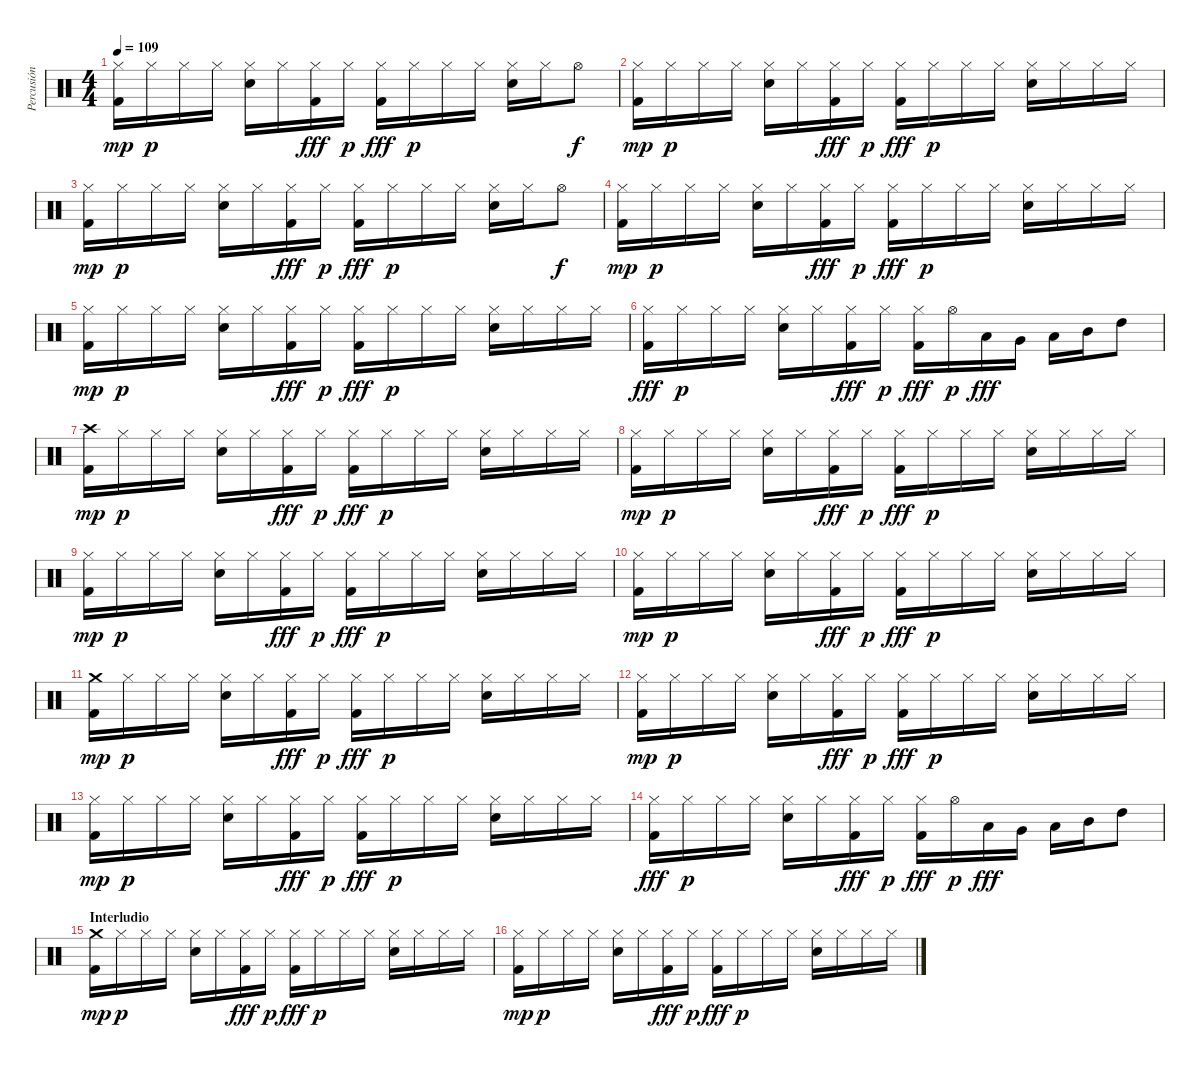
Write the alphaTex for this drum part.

\track ("Percusión" "Percusión") {instrument percussion}
\staff {score}
\articulation defaults
\ts (4 4)
\tempo 109
\clef neutral
\ks c
("Hi-Hat (closed)" "Kick (hit) 2").16{dy mp} "Hi-Hat (closed)".16{dy p} "Hi-Hat (closed)".16 "Hi-Hat (closed)".16 ("Hi-Hat (closed)" "Snare (hit) 2").16 "Hi-Hat (closed)".16 ("Hi-Hat (closed)" "Kick (hit) 2").16{dy fff} "Hi-Hat (closed)".16{dy p} ("Hi-Hat (closed)" "Kick (hit) 2").16{dy fff} "Hi-Hat (closed)".16{dy p} "Hi-Hat (closed)".16 "Hi-Hat (closed)".16 ("Hi-Hat (closed)" "Snare (hit) 2").16 "Hi-Hat (closed)".16 "Hi-Hat (open)".8{dy f} |
("Hi-Hat (closed)" "Kick (hit) 2").16{dy mp} "Hi-Hat (closed)".16{dy p} "Hi-Hat (closed)".16 "Hi-Hat (closed)".16 ("Hi-Hat (closed)" "Snare (hit) 2").16 "Hi-Hat (closed)".16 ("Hi-Hat (closed)" "Kick (hit) 2").16{dy fff} "Hi-Hat (closed)".16{dy p} ("Hi-Hat (closed)" "Kick (hit) 2").16{dy fff} "Hi-Hat (closed)".16{dy p} "Hi-Hat (closed)".16 "Hi-Hat (closed)".16 ("Hi-Hat (closed)" "Snare (hit) 2").16 "Hi-Hat (closed)".16 "Hi-Hat (closed)".16 "Hi-Hat (closed)".16 |
("Hi-Hat (closed)" "Kick (hit) 2").16{dy mp} "Hi-Hat (closed)".16{dy p} "Hi-Hat (closed)".16 "Hi-Hat (closed)".16 ("Hi-Hat (closed)" "Snare (hit) 2").16 "Hi-Hat (closed)".16 ("Hi-Hat (closed)" "Kick (hit) 2").16{dy fff} "Hi-Hat (closed)".16{dy p} ("Hi-Hat (closed)" "Kick (hit) 2").16{dy fff} "Hi-Hat (closed)".16{dy p} "Hi-Hat (closed)".16 "Hi-Hat (closed)".16 ("Hi-Hat (closed)" "Snare (hit) 2").16 "Hi-Hat (closed)".16 "Hi-Hat (open)".8{dy f} |
("Hi-Hat (closed)" "Kick (hit) 2").16{dy mp} "Hi-Hat (closed)".16{dy p} "Hi-Hat (closed)".16 "Hi-Hat (closed)".16 ("Hi-Hat (closed)" "Snare (hit) 2").16 "Hi-Hat (closed)".16 ("Hi-Hat (closed)" "Kick (hit) 2").16{dy fff} "Hi-Hat (closed)".16{dy p} ("Hi-Hat (closed)" "Kick (hit) 2").16{dy fff} "Hi-Hat (closed)".16{dy p} "Hi-Hat (closed)".16 "Hi-Hat (closed)".16 ("Hi-Hat (closed)" "Snare (hit) 2").16 "Hi-Hat (closed)".16 "Hi-Hat (closed)".16 "Hi-Hat (closed)".16 |
("Hi-Hat (closed)" "Kick (hit) 2").16{dy mp} "Hi-Hat (closed)".16{dy p} "Hi-Hat (closed)".16 "Hi-Hat (closed)".16 ("Hi-Hat (closed)" "Snare (hit) 2").16 "Hi-Hat (closed)".16 ("Hi-Hat (closed)" "Kick (hit) 2").16{dy fff} "Hi-Hat (closed)".16{dy p} ("Hi-Hat (closed)" "Kick (hit) 2").16{dy fff} "Hi-Hat (closed)".16{dy p} "Hi-Hat (closed)".16 "Hi-Hat (closed)".16 ("Hi-Hat (closed)" "Snare (hit) 2").16 "Hi-Hat (closed)".16 "Hi-Hat (closed)".16 "Hi-Hat (closed)".16 |
("Hi-Hat (closed)" "Kick (hit) 2").16{dy fff} "Hi-Hat (closed)".16{dy p} "Hi-Hat (closed)".16 "Hi-Hat (closed)".16 ("Hi-Hat (closed)" "Snare (hit) 2").16 "Hi-Hat (closed)".16 ("Hi-Hat (closed)" "Kick (hit) 2").16{dy fff} "Hi-Hat (closed)".16{dy p} ("Hi-Hat (closed)" "Kick (hit) 2").16{dy fff} "Hi-Hat (open)".16{dy p} "Low Floor Tom (hit)".16{dy fff} "Very Low Tom (hit)".16 "Low Tom (hit)".16 "Mid Tom (hit)".16 "High Tom (hit)".8 |
("Crash high (hit)" "Kick (hit) 2").16{dy mp} "Hi-Hat (closed)".16{dy p} "Hi-Hat (closed)".16 "Hi-Hat (closed)".16 ("Hi-Hat (closed)" "Snare (hit) 2").16 "Hi-Hat (closed)".16 ("Hi-Hat (closed)" "Kick (hit) 2").16{dy fff} "Hi-Hat (closed)".16{dy p} ("Hi-Hat (closed)" "Kick (hit) 2").16{dy fff} "Hi-Hat (closed)".16{dy p} "Hi-Hat (closed)".16 "Hi-Hat (closed)".16 ("Hi-Hat (closed)" "Snare (hit) 2").16 "Hi-Hat (closed)".16 "Hi-Hat (closed)".16 "Hi-Hat (closed)".16 |
("Hi-Hat (closed)" "Kick (hit) 2").16{dy mp} "Hi-Hat (closed)".16{dy p} "Hi-Hat (closed)".16 "Hi-Hat (closed)".16 ("Hi-Hat (closed)" "Snare (hit) 2").16 "Hi-Hat (closed)".16 ("Hi-Hat (closed)" "Kick (hit) 2").16{dy fff} "Hi-Hat (closed)".16{dy p} ("Hi-Hat (closed)" "Kick (hit) 2").16{dy fff} "Hi-Hat (closed)".16{dy p} "Hi-Hat (closed)".16 "Hi-Hat (closed)".16 ("Hi-Hat (closed)" "Snare (hit) 2").16 "Hi-Hat (closed)".16 "Hi-Hat (closed)".16 "Hi-Hat (closed)".16 |
("Hi-Hat (closed)" "Kick (hit) 2").16{dy mp} "Hi-Hat (closed)".16{dy p} "Hi-Hat (closed)".16 "Hi-Hat (closed)".16 ("Hi-Hat (closed)" "Snare (hit) 2").16 "Hi-Hat (closed)".16 ("Hi-Hat (closed)" "Kick (hit) 2").16{dy fff} "Hi-Hat (closed)".16{dy p} ("Hi-Hat (closed)" "Kick (hit) 2").16{dy fff} "Hi-Hat (closed)".16{dy p} "Hi-Hat (closed)".16 "Hi-Hat (closed)".16 ("Hi-Hat (closed)" "Snare (hit) 2").16 "Hi-Hat (closed)".16 "Hi-Hat (closed)".16 "Hi-Hat (closed)".16 |
("Hi-Hat (closed)" "Kick (hit) 2").16{dy mp} "Hi-Hat (closed)".16{dy p} "Hi-Hat (closed)".16 "Hi-Hat (closed)".16 ("Hi-Hat (closed)" "Snare (hit) 2").16 "Hi-Hat (closed)".16 ("Hi-Hat (closed)" "Kick (hit) 2").16{dy fff} "Hi-Hat (closed)".16{dy p} ("Hi-Hat (closed)" "Kick (hit) 2").16{dy fff} "Hi-Hat (closed)".16{dy p} "Hi-Hat (closed)".16 "Hi-Hat (closed)".16 ("Hi-Hat (closed)" "Snare (hit) 2").16 "Hi-Hat (closed)".16 "Hi-Hat (closed)".16 "Hi-Hat (closed)".16 |
("Crash medium (hit)" "Kick (hit) 2").16{dy mp} "Hi-Hat (closed)".16{dy p} "Hi-Hat (closed)".16 "Hi-Hat (closed)".16 ("Hi-Hat (closed)" "Snare (hit) 2").16 "Hi-Hat (closed)".16 ("Hi-Hat (closed)" "Kick (hit) 2").16{dy fff} "Hi-Hat (closed)".16{dy p} ("Hi-Hat (closed)" "Kick (hit) 2").16{dy fff} "Hi-Hat (closed)".16{dy p} "Hi-Hat (closed)".16 "Hi-Hat (closed)".16 ("Hi-Hat (closed)" "Snare (hit) 2").16 "Hi-Hat (closed)".16 "Hi-Hat (closed)".16 "Hi-Hat (closed)".16 |
("Hi-Hat (closed)" "Kick (hit) 2").16{dy mp} "Hi-Hat (closed)".16{dy p} "Hi-Hat (closed)".16 "Hi-Hat (closed)".16 ("Hi-Hat (closed)" "Snare (hit) 2").16 "Hi-Hat (closed)".16 ("Hi-Hat (closed)" "Kick (hit) 2").16{dy fff} "Hi-Hat (closed)".16{dy p} ("Hi-Hat (closed)" "Kick (hit) 2").16{dy fff} "Hi-Hat (closed)".16{dy p} "Hi-Hat (closed)".16 "Hi-Hat (closed)".16 ("Hi-Hat (closed)" "Snare (hit) 2").16 "Hi-Hat (closed)".16 "Hi-Hat (closed)".16 "Hi-Hat (closed)".16 |
("Hi-Hat (closed)" "Kick (hit) 2").16{dy mp} "Hi-Hat (closed)".16{dy p} "Hi-Hat (closed)".16 "Hi-Hat (closed)".16 ("Hi-Hat (closed)" "Snare (hit) 2").16 "Hi-Hat (closed)".16 ("Hi-Hat (closed)" "Kick (hit) 2").16{dy fff} "Hi-Hat (closed)".16{dy p} ("Hi-Hat (closed)" "Kick (hit) 2").16{dy fff} "Hi-Hat (closed)".16{dy p} "Hi-Hat (closed)".16 "Hi-Hat (closed)".16 ("Hi-Hat (closed)" "Snare (hit) 2").16 "Hi-Hat (closed)".16 "Hi-Hat (closed)".16 "Hi-Hat (closed)".16 |
("Hi-Hat (closed)" "Kick (hit) 2").16{dy fff} "Hi-Hat (closed)".16{dy p} "Hi-Hat (closed)".16 "Hi-Hat (closed)".16 ("Hi-Hat (closed)" "Snare (hit) 2").16 "Hi-Hat (closed)".16 ("Hi-Hat (closed)" "Kick (hit) 2").16{dy fff} "Hi-Hat (closed)".16{dy p} ("Hi-Hat (closed)" "Kick (hit) 2").16{dy fff} "Hi-Hat (open)".16{dy p} "Low Floor Tom (hit)".16{dy fff} "Very Low Tom (hit)".16 "Low Tom (hit)".16 "Mid Tom (hit)".16 "High Tom (hit)".8 |
\section ("" "Interludio")
("Crash medium (hit)" "Kick (hit) 2").16{dy mp} "Hi-Hat (closed)".16{dy p} "Hi-Hat (closed)".16 "Hi-Hat (closed)".16 ("Hi-Hat (closed)" "Snare (hit) 2").16 "Hi-Hat (closed)".16 ("Hi-Hat (closed)" "Kick (hit) 2").16{dy fff} "Hi-Hat (closed)".16{dy p} ("Hi-Hat (closed)" "Kick (hit) 2").16{dy fff} "Hi-Hat (closed)".16{dy p} "Hi-Hat (closed)".16 "Hi-Hat (closed)".16 ("Hi-Hat (closed)" "Snare (hit) 2").16 "Hi-Hat (closed)".16 "Hi-Hat (closed)".16 "Hi-Hat (closed)".16 |
("Hi-Hat (closed)" "Kick (hit) 2").16{dy mp} "Hi-Hat (closed)".16{dy p} "Hi-Hat (closed)".16 "Hi-Hat (closed)".16 ("Hi-Hat (closed)" "Snare (hit) 2").16 "Hi-Hat (closed)".16 ("Hi-Hat (closed)" "Kick (hit) 2").16{dy fff} "Hi-Hat (closed)".16{dy p} ("Hi-Hat (closed)" "Kick (hit) 2").16{dy fff} "Hi-Hat (closed)".16{dy p} "Hi-Hat (closed)".16 "Hi-Hat (closed)".16 ("Hi-Hat (closed)" "Snare (hit) 2").16 "Hi-Hat (closed)".16 "Hi-Hat (closed)".16 "Hi-Hat (closed)".16
